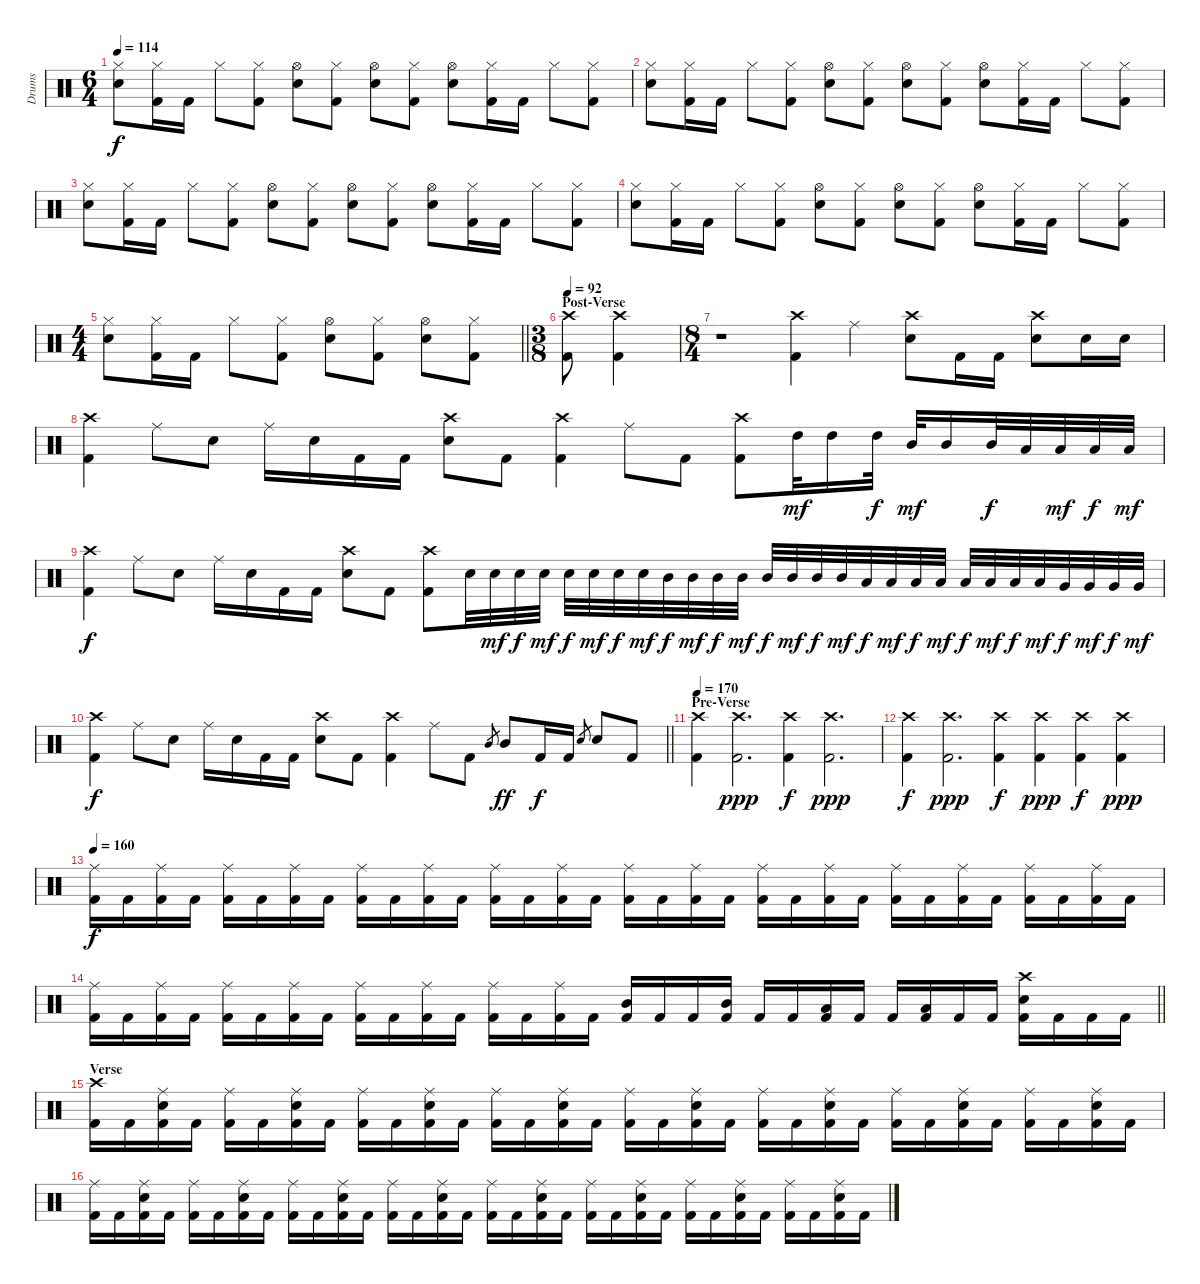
\track ("Drums" "Drums") {instrument percussion}
\staff {score}
\articulation defaults
\ts (6 4)
\tempo 114
\clef neutral
\ks c
("Hi-Hat (closed)" "Snare (hit) 2").8{dy f} ("Hi-Hat (closed)" "Kick (hit) 2").16 "Kick (hit) 2".16 "Hi-Hat (closed)".8 ("Hi-Hat (closed)" "Kick (hit) 2").8 ("Hi-Hat (open)" "Snare (hit) 2").8 ("Hi-Hat (closed)" "Kick (hit) 2").8 ("Hi-Hat (open)" "Snare (hit) 2").8 ("Hi-Hat (closed)" "Kick (hit) 2").8 ("Hi-Hat (open)" "Snare (hit) 2").8 ("Hi-Hat (closed)" "Kick (hit) 2").16 "Kick (hit) 2".16 "Hi-Hat (closed)".8 ("Hi-Hat (closed)" "Kick (hit) 2").8 |
("Hi-Hat (closed)" "Snare (hit) 2").8 ("Hi-Hat (closed)" "Kick (hit) 2").16 "Kick (hit) 2".16 "Hi-Hat (closed)".8 ("Hi-Hat (closed)" "Kick (hit) 2").8 ("Hi-Hat (open)" "Snare (hit) 2").8 ("Hi-Hat (closed)" "Kick (hit) 2").8 ("Hi-Hat (open)" "Snare (hit) 2").8 ("Hi-Hat (closed)" "Kick (hit) 2").8 ("Hi-Hat (open)" "Snare (hit) 2").8 ("Hi-Hat (closed)" "Kick (hit) 2").16 "Kick (hit) 2".16 "Hi-Hat (closed)".8 ("Hi-Hat (closed)" "Kick (hit) 2").8 |
("Hi-Hat (closed)" "Snare (hit) 2").8 ("Hi-Hat (closed)" "Kick (hit) 2").16 "Kick (hit) 2".16 "Hi-Hat (closed)".8 ("Hi-Hat (closed)" "Kick (hit) 2").8 ("Hi-Hat (open)" "Snare (hit) 2").8 ("Hi-Hat (closed)" "Kick (hit) 2").8 ("Hi-Hat (open)" "Snare (hit) 2").8 ("Hi-Hat (closed)" "Kick (hit) 2").8 ("Hi-Hat (open)" "Snare (hit) 2").8 ("Hi-Hat (closed)" "Kick (hit) 2").16 "Kick (hit) 2".16 "Hi-Hat (closed)".8 ("Hi-Hat (closed)" "Kick (hit) 2").8 |
("Hi-Hat (closed)" "Snare (hit) 2").8 ("Hi-Hat (closed)" "Kick (hit) 2").16 "Kick (hit) 2".16 "Hi-Hat (closed)".8 ("Hi-Hat (closed)" "Kick (hit) 2").8 ("Hi-Hat (open)" "Snare (hit) 2").8 ("Hi-Hat (closed)" "Kick (hit) 2").8 ("Hi-Hat (open)" "Snare (hit) 2").8 ("Hi-Hat (closed)" "Kick (hit) 2").8 ("Hi-Hat (open)" "Snare (hit) 2").8 ("Hi-Hat (closed)" "Kick (hit) 2").16 "Kick (hit) 2".16 "Hi-Hat (closed)".8 ("Hi-Hat (closed)" "Kick (hit) 2").8 |
\ts (4 4)
\barLineRight lightlight
("Hi-Hat (closed)" "Snare (hit) 2").8 ("Hi-Hat (closed)" "Kick (hit) 2").16 "Kick (hit) 2".16 "Hi-Hat (closed)".8 ("Hi-Hat (closed)" "Kick (hit) 2").8 ("Hi-Hat (open)" "Snare (hit) 2").8 ("Hi-Hat (closed)" "Kick (hit) 2").8 ("Hi-Hat (open)" "Snare (hit) 2").8 ("Hi-Hat (closed)" "Kick (hit) 2").8 |
\ts (3 8)
\section ("" "Post-Verse")
\tempo 92
("Crash high (hit)" "Kick (hit) 2").8 ("Crash high (hit)" "Kick (hit) 2").4 |
\ts (8 4)
r.1 ("Crash high (hit)" "Kick (hit) 2").4 "Ride (middle)".4 ("Crash high (hit)" "Snare (hit) 2").8 "Kick (hit) 2".16 "Kick (hit) 2".16 ("Crash high (hit)" "Snare (hit) 2").8 "Snare (hit) 2".16 "Snare (hit) 2".16 |
("Crash high (hit)" "Kick (hit) 2").4 "Ride (middle)".8 "Snare (hit) 2".8 "Ride (middle)".16 "Snare (hit) 2".16 "Kick (hit) 2".16 "Kick (hit) 2".16 ("Crash high (hit)" "Snare (hit) 2").8 "Kick (hit) 2".8 ("Crash high (hit)" "Kick (hit) 2").4 "Ride (middle)".8 "Kick (hit) 2".8 ("Crash high (hit)" "Kick (hit) 2").8 "High Tom (hit)".32{dy mf} "High Tom (hit)".16 "High Tom (hit)".32{dy f} "Mid Tom (hit)".32{dy mf} "Mid Tom (hit)".16 "Mid Tom (hit)".32{dy f} "Low Tom (hit)".32 "Low Tom (hit)".32{dy mf} "Low Tom (hit)".32{dy f} "Low Tom (hit)".32{dy mf} |
("Crash high (hit)" "Kick (hit) 2").4{dy f} "Ride (middle)".8 "Snare (hit) 2".8 "Ride (middle)".16 "Snare (hit) 2".16 "Kick (hit) 2".16 "Kick (hit) 2".16 ("Crash high (hit)" "Snare (hit) 2").8 "Kick (hit) 2".8 ("Crash high (hit)" "Kick (hit) 2").8 "Snare (hit) 2".32 "Snare (hit) 2".32{dy mf} "Snare (hit) 2".32{dy f} "Snare (hit) 2".32{dy mf} "Snare (hit) 2".32{dy f} "Snare (hit) 2".32{dy mf} "Snare (hit) 2".32{dy f} "Snare (hit) 2".32{dy mf} "Mid Tom (hit)".32{dy f} "Mid Tom (hit)".32{dy mf} "Mid Tom (hit)".32{dy f} "Mid Tom (hit)".32{dy mf} "Mid Tom (hit)".32{dy f} "Mid Tom (hit)".32{dy mf} "Mid Tom (hit)".32{dy f} "Mid Tom (hit)".32{dy mf} "Low Tom (hit)".32{dy f} "Low Tom (hit)".32{dy mf} "Low Tom (hit)".32{dy f} "Low Tom (hit)".32{dy mf} "Low Tom (hit)".32{dy f} "Low Tom (hit)".32{dy mf} "Low Tom (hit)".32{dy f} "Low Tom (hit)".32{dy mf} "Very Low Tom (hit)".32{dy f} "Very Low Tom (hit)".32{dy mf} "Very Low Tom (hit)".32{dy f} "Very Low Tom (hit)".32{dy mf} |
\barLineRight lightlight
("Crash high (hit)" "Kick (hit) 2").4{dy f} "Ride (middle)".8 "Snare (hit) 2".8 "Ride (middle)".16 "Snare (hit) 2".16 "Kick (hit) 2".16 "Kick (hit) 2".16 ("Crash high (hit)" "Snare (hit) 2").8 "Kick (hit) 2".8 ("Crash high (hit)" "Kick (hit) 2").4 "Ride (middle)".8 "Kick (hit) 2".8 "Mid Tom (hit)".8{gr} "Mid Tom (hit)".8{dy ff} "Kick (hit) 2".16{dy f} "Kick (hit) 2".16 "Snare (hit) 2".8{gr} "Snare (hit) 2".8 "Kick (hit) 2".8 |
\section ("" "Pre-Verse")
\tempo 170
("Crash high (hit)" "Kick (hit) 2").4 ("Crash high (hit)" "Kick (hit) 2").2{d dy ppp} ("Crash high (hit)" "Kick (hit) 2").4{dy f} ("Crash high (hit)" "Kick (hit) 2").2{d dy ppp} |
("Crash high (hit)" "Kick (hit) 2").4{dy f} ("Crash high (hit)" "Kick (hit) 2").2{d dy ppp} ("Crash high (hit)" "Kick (hit) 2").4{dy f} ("Crash high (hit)" "Kick (hit) 2").4{dy ppp} ("Crash high (hit)" "Kick (hit) 2").4{dy f} ("Crash high (hit)" "Kick (hit) 2").4{dy ppp} |
\tempo 160
("Ride (middle)" "Kick (hit) 2").16{dy f} "Kick (hit) 2".16 ("Ride (middle)" "Kick (hit) 2").16 "Kick (hit) 2".16 ("Ride (middle)" "Kick (hit) 2").16 "Kick (hit) 2".16 ("Ride (middle)" "Kick (hit) 2").16 "Kick (hit) 2".16 ("Ride (middle)" "Kick (hit) 2").16 "Kick (hit) 2".16 ("Ride (middle)" "Kick (hit) 2").16 "Kick (hit) 2".16 ("Ride (middle)" "Kick (hit) 2").16 "Kick (hit) 2".16 ("Ride (middle)" "Kick (hit) 2").16 "Kick (hit) 2".16 ("Ride (middle)" "Kick (hit) 2").16 "Kick (hit) 2".16 ("Ride (middle)" "Kick (hit) 2").16 "Kick (hit) 2".16 ("Ride (middle)" "Kick (hit) 2").16 "Kick (hit) 2".16 ("Ride (middle)" "Kick (hit) 2").16 "Kick (hit) 2".16 ("Ride (middle)" "Kick (hit) 2").16 "Kick (hit) 2".16 ("Ride (middle)" "Kick (hit) 2").16 "Kick (hit) 2".16 ("Ride (middle)" "Kick (hit) 2").16 "Kick (hit) 2".16 ("Ride (middle)" "Kick (hit) 2").16 "Kick (hit) 2".16 |
\barLineRight lightlight
("Ride (middle)" "Kick (hit) 2").16 "Kick (hit) 2".16 ("Ride (middle)" "Kick (hit) 2").16 "Kick (hit) 2".16 ("Ride (middle)" "Kick (hit) 2").16 "Kick (hit) 2".16 ("Ride (middle)" "Kick (hit) 2").16 "Kick (hit) 2".16 ("Ride (middle)" "Kick (hit) 2").16 "Kick (hit) 2".16 ("Ride (middle)" "Kick (hit) 2").16 "Kick (hit) 2".16 ("Ride (middle)" "Kick (hit) 2").16 "Kick (hit) 2".16 ("Ride (middle)" "Kick (hit) 2").16 "Kick (hit) 2".16 ("Mid Tom (hit)" "Kick (hit) 2").16 "Kick (hit) 2".16 "Kick (hit) 2".16 ("Mid Tom (hit)" "Kick (hit) 2").16 "Kick (hit) 2".16 "Kick (hit) 2".16 ("Low Tom (hit)" "Kick (hit) 2").16 "Kick (hit) 2".16 "Kick (hit) 2".16 ("Low Tom (hit)" "Kick (hit) 2").16 "Kick (hit) 2".16 "Kick (hit) 2".16 ("Crash high (hit)" "Snare (hit) 2" "Kick (hit) 2").16 "Kick (hit) 2".16 "Kick (hit) 2".16 "Kick (hit) 2".16 |
\section ("" "Verse")
("Crash high (hit)" "Kick (hit) 2").16 "Kick (hit) 2".16 ("Ride (middle)" "Snare (hit) 2" "Kick (hit) 2").16 "Kick (hit) 2".16 ("Ride (middle)" "Kick (hit) 2").16 "Kick (hit) 2".16 ("Ride (middle)" "Snare (hit) 2" "Kick (hit) 2").16 "Kick (hit) 2".16 ("Ride (middle)" "Kick (hit) 2").16 "Kick (hit) 2".16 ("Ride (middle)" "Snare (hit) 2" "Kick (hit) 2").16 "Kick (hit) 2".16 ("Ride (middle)" "Kick (hit) 2").16 "Kick (hit) 2".16 ("Ride (middle)" "Snare (hit) 2" "Kick (hit) 2").16 "Kick (hit) 2".16 ("Ride (middle)" "Kick (hit) 2").16 "Kick (hit) 2".16 ("Ride (middle)" "Snare (hit) 2" "Kick (hit) 2").16 "Kick (hit) 2".16 ("Ride (middle)" "Kick (hit) 2").16 "Kick (hit) 2".16 ("Ride (middle)" "Snare (hit) 2" "Kick (hit) 2").16 "Kick (hit) 2".16 ("Ride (middle)" "Kick (hit) 2").16 "Kick (hit) 2".16 ("Ride (middle)" "Snare (hit) 2" "Kick (hit) 2").16 "Kick (hit) 2".16 ("Ride (middle)" "Kick (hit) 2").16 "Kick (hit) 2".16 ("Ride (middle)" "Snare (hit) 2" "Kick (hit) 2").16 "Kick (hit) 2".16 |
("Ride (middle)" "Kick (hit) 2").16 "Kick (hit) 2".16 ("Ride (middle)" "Snare (hit) 2" "Kick (hit) 2").16 "Kick (hit) 2".16 ("Ride (middle)" "Kick (hit) 2").16 "Kick (hit) 2".16 ("Ride (middle)" "Snare (hit) 2" "Kick (hit) 2").16 "Kick (hit) 2".16 ("Ride (middle)" "Kick (hit) 2").16 "Kick (hit) 2".16 ("Ride (middle)" "Snare (hit) 2" "Kick (hit) 2").16 "Kick (hit) 2".16 ("Ride (middle)" "Kick (hit) 2").16 "Kick (hit) 2".16 ("Ride (middle)" "Snare (hit) 2" "Kick (hit) 2").16 "Kick (hit) 2".16 ("Ride (middle)" "Kick (hit) 2").16 "Kick (hit) 2".16 ("Ride (middle)" "Snare (hit) 2" "Kick (hit) 2").16 "Kick (hit) 2".16 ("Ride (middle)" "Kick (hit) 2").16 "Kick (hit) 2".16 ("Ride (middle)" "Snare (hit) 2" "Kick (hit) 2").16 "Kick (hit) 2".16 ("Ride (middle)" "Kick (hit) 2").16 "Kick (hit) 2".16 ("Ride (middle)" "Snare (hit) 2" "Kick (hit) 2").16 "Kick (hit) 2".16 ("Ride (middle)" "Kick (hit) 2").16 "Kick (hit) 2".16 ("Ride (middle)" "Snare (hit) 2" "Kick (hit) 2").16 "Kick (hit) 2".16
